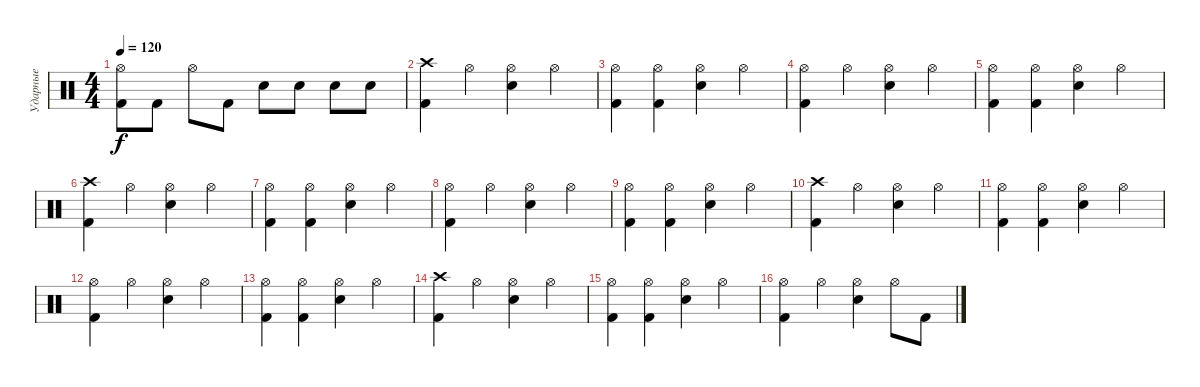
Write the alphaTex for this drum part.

\track ("Ударные" "Ударные") {instrument percussion}
\staff {score}
\articulation defaults
\ts (4 4)
\tempo 120
\clef neutral
\ks c
("Hi-Hat (open)" "Kick (hit) 2").8{dy f} "Kick (hit) 2".8 "Hi-Hat (open)".8 "Kick (hit) 2".8 "Snare (hit) 2".8 "Snare (hit) 2".8 "Snare (hit) 2".8 "Snare (hit) 2".8 |
("Crash high (hit)" "Kick (hit) 2").4 "Hi-Hat (open)".4 ("Hi-Hat (open)" "Snare (hit) 2").4 "Hi-Hat (open)".4 |
("Hi-Hat (open)" "Kick (hit) 2").4 ("Hi-Hat (open)" "Kick (hit) 2").4 ("Hi-Hat (open)" "Snare (hit) 2").4 "Hi-Hat (open)".4 |
("Hi-Hat (open)" "Kick (hit) 2").4 "Hi-Hat (open)".4 ("Hi-Hat (open)" "Snare (hit) 2").4 "Hi-Hat (open)".4 |
("Hi-Hat (open)" "Kick (hit) 2").4 ("Hi-Hat (open)" "Kick (hit) 2").4 ("Hi-Hat (open)" "Snare (hit) 2").4 "Hi-Hat (open)".4 |
("Crash high (hit)" "Kick (hit) 2").4 "Hi-Hat (open)".4 ("Hi-Hat (open)" "Snare (hit) 2").4 "Hi-Hat (open)".4 |
("Hi-Hat (open)" "Kick (hit) 2").4 ("Hi-Hat (open)" "Kick (hit) 2").4 ("Hi-Hat (open)" "Snare (hit) 2").4 "Hi-Hat (open)".4 |
("Hi-Hat (open)" "Kick (hit) 2").4 "Hi-Hat (open)".4 ("Hi-Hat (open)" "Snare (hit) 2").4 "Hi-Hat (open)".4 |
("Hi-Hat (open)" "Kick (hit) 2").4 ("Hi-Hat (open)" "Kick (hit) 2").4 ("Hi-Hat (open)" "Snare (hit) 2").4 "Hi-Hat (open)".4 |
("Crash high (hit)" "Kick (hit) 2").4 "Hi-Hat (open)".4 ("Hi-Hat (open)" "Snare (hit) 2").4 "Hi-Hat (open)".4 |
("Hi-Hat (open)" "Kick (hit) 2").4 ("Hi-Hat (open)" "Kick (hit) 2").4 ("Hi-Hat (open)" "Snare (hit) 2").4 "Hi-Hat (open)".4 |
("Hi-Hat (open)" "Kick (hit) 2").4 "Hi-Hat (open)".4 ("Hi-Hat (open)" "Snare (hit) 2").4 "Hi-Hat (open)".4 |
("Hi-Hat (open)" "Kick (hit) 2").4 ("Hi-Hat (open)" "Kick (hit) 2").4 ("Hi-Hat (open)" "Snare (hit) 2").4 "Hi-Hat (open)".4 |
("Crash high (hit)" "Kick (hit) 2").4 "Hi-Hat (open)".4 ("Hi-Hat (open)" "Snare (hit) 2").4 "Hi-Hat (open)".4 |
("Hi-Hat (open)" "Kick (hit) 2").4 ("Hi-Hat (open)" "Kick (hit) 2").4 ("Hi-Hat (open)" "Snare (hit) 2").4 "Hi-Hat (open)".4 |
("Hi-Hat (open)" "Kick (hit) 2").4 "Hi-Hat (open)".4 ("Hi-Hat (open)" "Snare (hit) 2").4 "Hi-Hat (open)".8 "Kick (hit) 2".8
